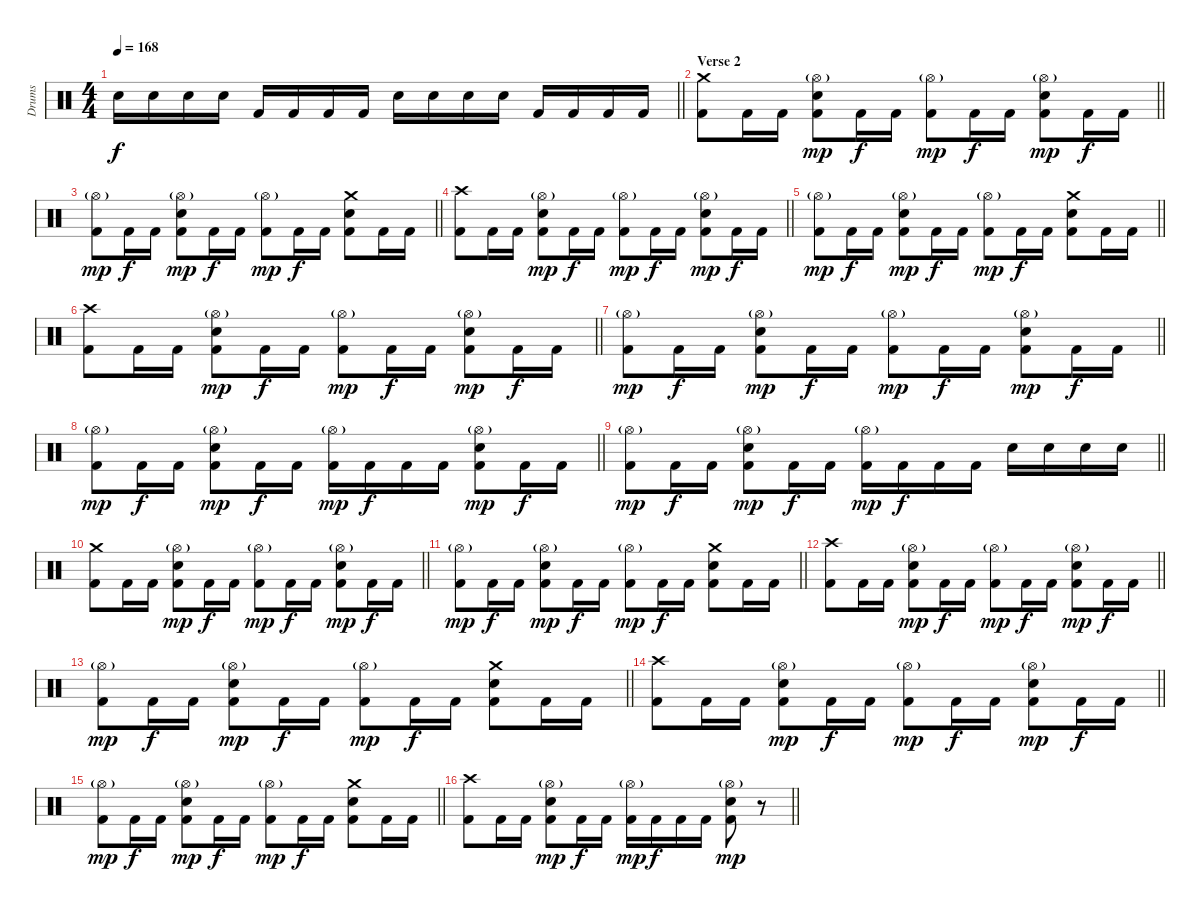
\track ("Drums" "Drums") {instrument percussion}
\staff {score}
\articulation defaults
\ts (4 4)
\tempo 168
\clef neutral
\barLineRight lightlight
\ks c "Snare (hit) 2".16{dy f} "Snare (hit) 2".16 "Snare (hit) 2".16 "Snare (hit) 2".16 "Kick (hit) 2".16 "Kick (hit) 2".16 "Kick (hit) 2".16 "Kick (hit) 2".16 "Snare (hit) 2".16 "Snare (hit) 2".16 "Snare (hit) 2".16 "Snare (hit) 2".16 "Kick (hit) 2".16 "Kick (hit) 2".16 "Kick (hit) 2".16 "Kick (hit) 2".16
|
\section ("" "Verse 2")
\barLineRight lightlight
("Crash medium (hit)" "Kick (hit) 2").8 "Kick (hit) 2".16 "Kick (hit) 2".16 ("Snare (hit) 2" "Hi-Hat (open)"{g} "Kick (hit) 2").8{dy mp} "Kick (hit) 2".16{dy f} "Kick (hit) 2".16 ("Hi-Hat (open)"{g} "Kick (hit) 2").8{dy mp} "Kick (hit) 2".16{dy f} "Kick (hit) 2".16 ("Snare (hit) 2" "Hi-Hat (open)"{g} "Kick (hit) 2").8{dy mp} "Kick (hit) 2".16{dy f} "Kick (hit) 2".16 |
\barLineRight lightlight
("Hi-Hat (open)"{g} "Kick (hit) 2").8{dy mp} "Kick (hit) 2".16{dy f} "Kick (hit) 2".16 ("Snare (hit) 2" "Hi-Hat (open)"{g} "Kick (hit) 2").8{dy mp} "Kick (hit) 2".16{dy f} "Kick (hit) 2".16 ("Hi-Hat (open)"{g} "Kick (hit) 2").8{dy mp} "Kick (hit) 2".16{dy f} "Kick (hit) 2".16 ("Crash medium (hit)" "Snare (hit) 2" "Kick (hit) 2").8 "Kick (hit) 2".16 "Kick (hit) 2".16 |
\barLineRight lightlight
("Crash high (hit)" "Kick (hit) 2").8 "Kick (hit) 2".16 "Kick (hit) 2".16 ("Snare (hit) 2" "Hi-Hat (open)"{g} "Kick (hit) 2").8{dy mp} "Kick (hit) 2".16{dy f} "Kick (hit) 2".16 ("Hi-Hat (open)"{g} "Kick (hit) 2").8{dy mp} "Kick (hit) 2".16{dy f} "Kick (hit) 2".16 ("Snare (hit) 2" "Hi-Hat (open)"{g} "Kick (hit) 2").8{dy mp} "Kick (hit) 2".16{dy f} "Kick (hit) 2".16 |
\barLineRight lightlight
("Hi-Hat (open)"{g} "Kick (hit) 2").8{dy mp} "Kick (hit) 2".16{dy f} "Kick (hit) 2".16 ("Snare (hit) 2" "Hi-Hat (open)"{g} "Kick (hit) 2").8{dy mp} "Kick (hit) 2".16{dy f} "Kick (hit) 2".16 ("Hi-Hat (open)"{g} "Kick (hit) 2").8{dy mp} "Kick (hit) 2".16{dy f} "Kick (hit) 2".16 ("Crash medium (hit)" "Snare (hit) 2" "Kick (hit) 2").8 "Kick (hit) 2".16 "Kick (hit) 2".16 |
\barLineRight lightlight
("Crash high (hit)" "Kick (hit) 2").8 "Kick (hit) 2".16 "Kick (hit) 2".16 ("Snare (hit) 2" "Hi-Hat (open)"{g} "Kick (hit) 2").8{dy mp} "Kick (hit) 2".16{dy f} "Kick (hit) 2".16 ("Hi-Hat (open)"{g} "Kick (hit) 2").8{dy mp} "Kick (hit) 2".16{dy f} "Kick (hit) 2".16 ("Snare (hit) 2" "Hi-Hat (open)"{g} "Kick (hit) 2").8{dy mp} "Kick (hit) 2".16{dy f} "Kick (hit) 2".16 |
\barLineRight lightlight
("Hi-Hat (open)"{g} "Kick (hit) 2").8{dy mp} "Kick (hit) 2".16{dy f} "Kick (hit) 2".16 ("Snare (hit) 2" "Hi-Hat (open)"{g} "Kick (hit) 2").8{dy mp} "Kick (hit) 2".16{dy f} "Kick (hit) 2".16 ("Hi-Hat (open)"{g} "Kick (hit) 2").8{dy mp} "Kick (hit) 2".16{dy f} "Kick (hit) 2".16 ("Snare (hit) 2" "Hi-Hat (open)"{g} "Kick (hit) 2").8{dy mp} "Kick (hit) 2".16{dy f} "Kick (hit) 2".16 |
\barLineRight lightlight
("Hi-Hat (open)"{g} "Kick (hit) 2").8{dy mp} "Kick (hit) 2".16{dy f} "Kick (hit) 2".16 ("Snare (hit) 2" "Hi-Hat (open)"{g} "Kick (hit) 2").8{dy mp} "Kick (hit) 2".16{dy f} "Kick (hit) 2".16 ("Hi-Hat (open)"{g} "Kick (hit) 2").16{dy mp} "Kick (hit) 2".16{dy f} "Kick (hit) 2".16 "Kick (hit) 2".16 ("Snare (hit) 2" "Hi-Hat (open)"{g} "Kick (hit) 2").8{dy mp} "Kick (hit) 2".16{dy f} "Kick (hit) 2".16 |
\barLineRight lightlight
("Hi-Hat (open)"{g} "Kick (hit) 2").8{dy mp} "Kick (hit) 2".16{dy f} "Kick (hit) 2".16 ("Snare (hit) 2" "Hi-Hat (open)"{g} "Kick (hit) 2").8{dy mp} "Kick (hit) 2".16{dy f} "Kick (hit) 2".16 ("Hi-Hat (open)"{g} "Kick (hit) 2").16{dy mp} "Kick (hit) 2".16{dy f} "Kick (hit) 2".16 "Kick (hit) 2".16 "Snare (hit) 2".16 "Snare (hit) 2".16 "Snare (hit) 2".16 "Snare (hit) 2".16 |
\barLineRight lightlight
("Crash medium (hit)" "Kick (hit) 2").8 "Kick (hit) 2".16 "Kick (hit) 2".16 ("Snare (hit) 2" "Hi-Hat (open)"{g} "Kick (hit) 2").8{dy mp} "Kick (hit) 2".16{dy f} "Kick (hit) 2".16 ("Hi-Hat (open)"{g} "Kick (hit) 2").8{dy mp} "Kick (hit) 2".16{dy f} "Kick (hit) 2".16 ("Snare (hit) 2" "Hi-Hat (open)"{g} "Kick (hit) 2").8{dy mp} "Kick (hit) 2".16{dy f} "Kick (hit) 2".16 |
\barLineRight lightlight
("Hi-Hat (open)"{g} "Kick (hit) 2").8{dy mp} "Kick (hit) 2".16{dy f} "Kick (hit) 2".16 ("Snare (hit) 2" "Hi-Hat (open)"{g} "Kick (hit) 2").8{dy mp} "Kick (hit) 2".16{dy f} "Kick (hit) 2".16 ("Hi-Hat (open)"{g} "Kick (hit) 2").8{dy mp} "Kick (hit) 2".16{dy f} "Kick (hit) 2".16 ("Crash medium (hit)" "Snare (hit) 2" "Kick (hit) 2").8 "Kick (hit) 2".16 "Kick (hit) 2".16 |
\barLineRight lightlight
("Crash high (hit)" "Kick (hit) 2").8 "Kick (hit) 2".16 "Kick (hit) 2".16 ("Snare (hit) 2" "Hi-Hat (open)"{g} "Kick (hit) 2").8{dy mp} "Kick (hit) 2".16{dy f} "Kick (hit) 2".16 ("Hi-Hat (open)"{g} "Kick (hit) 2").8{dy mp} "Kick (hit) 2".16{dy f} "Kick (hit) 2".16 ("Snare (hit) 2" "Hi-Hat (open)"{g} "Kick (hit) 2").8{dy mp} "Kick (hit) 2".16{dy f} "Kick (hit) 2".16 |
\barLineRight lightlight
("Hi-Hat (open)"{g} "Kick (hit) 2").8{dy mp} "Kick (hit) 2".16{dy f} "Kick (hit) 2".16 ("Snare (hit) 2" "Hi-Hat (open)"{g} "Kick (hit) 2").8{dy mp} "Kick (hit) 2".16{dy f} "Kick (hit) 2".16 ("Hi-Hat (open)"{g} "Kick (hit) 2").8{dy mp} "Kick (hit) 2".16{dy f} "Kick (hit) 2".16 ("Crash medium (hit)" "Snare (hit) 2" "Kick (hit) 2").8 "Kick (hit) 2".16 "Kick (hit) 2".16 |
\barLineRight lightlight
("Crash high (hit)" "Kick (hit) 2").8 "Kick (hit) 2".16 "Kick (hit) 2".16 ("Snare (hit) 2" "Hi-Hat (open)"{g} "Kick (hit) 2").8{dy mp} "Kick (hit) 2".16{dy f} "Kick (hit) 2".16 ("Hi-Hat (open)"{g} "Kick (hit) 2").8{dy mp} "Kick (hit) 2".16{dy f} "Kick (hit) 2".16 ("Snare (hit) 2" "Hi-Hat (open)"{g} "Kick (hit) 2").8{dy mp} "Kick (hit) 2".16{dy f} "Kick (hit) 2".16 |
\barLineRight lightlight
("Hi-Hat (open)"{g} "Kick (hit) 2").8{dy mp} "Kick (hit) 2".16{dy f} "Kick (hit) 2".16 ("Snare (hit) 2" "Hi-Hat (open)"{g} "Kick (hit) 2").8{dy mp} "Kick (hit) 2".16{dy f} "Kick (hit) 2".16 ("Hi-Hat (open)"{g} "Kick (hit) 2").8{dy mp} "Kick (hit) 2".16{dy f} "Kick (hit) 2".16 ("Crash medium (hit)" "Snare (hit) 2" "Kick (hit) 2").8 "Kick (hit) 2".16 "Kick (hit) 2".16 |
\barLineRight lightlight
("Crash high (hit)" "Kick (hit) 2").8 "Kick (hit) 2".16 "Kick (hit) 2".16 ("Snare (hit) 2" "Hi-Hat (open)"{g} "Kick (hit) 2").8{dy mp} "Kick (hit) 2".16{dy f} "Kick (hit) 2".16 ("Hi-Hat (open)"{g} "Kick (hit) 2").16{dy mp} "Kick (hit) 2".16{dy f} "Kick (hit) 2".16 "Kick (hit) 2".16 ("Snare (hit) 2" "Hi-Hat (open)"{g} "Kick (hit) 2").8{dy mp} r.8
